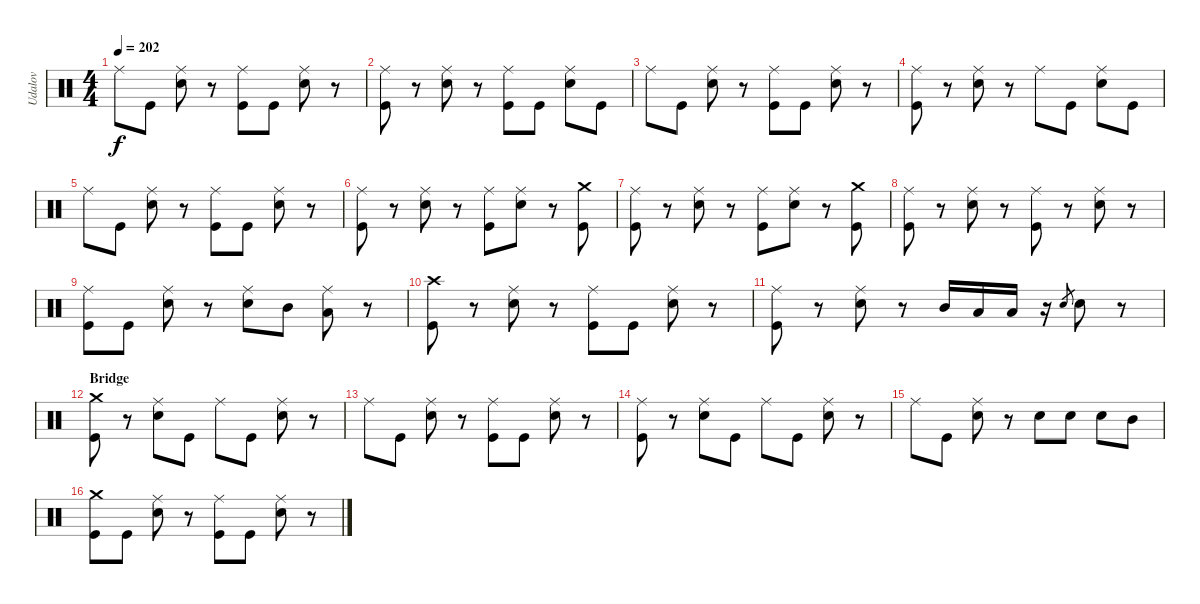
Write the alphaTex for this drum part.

\track ("Udalov" "Udalov") {instrument percussion}
\staff {score}
\articulation defaults
\ts (4 4)
\tempo 202
\clef neutral
\ks c "Ride (middle)".8{dy f} "Kick (hit)".8
("Electric Snare (hit)" "Ride (middle)").8 r.8 ("Kick (hit)" "Ride (middle)").8 "Kick (hit)".8 ("Electric Snare (hit)" "Ride (middle)").8 r.8 |
("Kick (hit)" "Ride (middle)").8 r.8 ("Electric Snare (hit)" "Ride (middle)").8 r.8 ("Kick (hit)" "Ride (middle)").8 "Kick (hit)".8 ("Electric Snare (hit)" "Ride (middle)").8 "Kick (hit)".8 |
"Ride (middle)".8 "Kick (hit)".8 ("Electric Snare (hit)" "Ride (middle)").8 r.8 ("Kick (hit)" "Ride (middle)").8 "Kick (hit)".8 ("Electric Snare (hit)" "Ride (middle)").8 r.8 |
("Kick (hit)" "Ride (middle)").8 r.8 ("Electric Snare (hit)" "Ride (middle)").8 r.8 "Ride (middle)".8 "Kick (hit)".8 ("Electric Snare (hit)" "Ride (middle)").8 "Kick (hit)".8 |
"Ride (middle)".8 "Kick (hit)".8 ("Electric Snare (hit)" "Ride (middle)").8 r.8 ("Kick (hit)" "Ride (middle)").8 "Kick (hit)".8 ("Electric Snare (hit)" "Ride (middle)").8 r.8 |
("Kick (hit)" "Ride (middle)").8 r.8 ("Electric Snare (hit)" "Ride (middle)").8 r.8 ("Kick (hit)" "Ride (middle)").8 ("Electric Snare (hit)" "Ride (middle)").8 r.8 ("Kick (hit)" "Crash medium (hit)").8 |
("Kick (hit)" "Ride (middle)").8 r.8 ("Electric Snare (hit)" "Ride (middle)").8 r.8 ("Kick (hit)" "Ride (middle)").8 ("Electric Snare (hit)" "Ride (middle)").8 r.8 ("Kick (hit)" "Crash medium (hit)").8 |
("Kick (hit)" "Ride (middle)").8 r.8 ("Electric Snare (hit)" "Ride (middle)").8 r.8 ("Kick (hit)" "Ride (middle)").8 r.8 ("Electric Snare (hit)" "Ride (middle)").8 r.8 |
("Kick (hit)" "Ride (middle)").8 "Kick (hit)".8 ("Electric Snare (hit)" "Ride (middle)").8 r.8 ("Electric Snare (hit)" "Ride (middle)").8 "Mid Tom (hit)".8 ("Low Tom (hit)" "Ride (middle)").8 r.8 |
("Kick (hit)" "Crash high (hit)").8 r.8 ("Electric Snare (hit)" "Ride (middle)").8 r.8 ("Kick (hit)" "Ride (middle)").8 "Kick (hit)".8 ("Electric Snare (hit)" "Ride (middle)").8 r.8 |
("Kick (hit)" "Ride (middle)").8 r.8 ("Electric Snare (hit)" "Ride (middle)").8 r.8 "Mid Tom (hit)".16 "Low Tom (hit)".16 "Low Tom (hit)".16 r.16 "Electric Snare (hit)".8{gr} "Electric Snare (hit)".8 r.8 |
\section ("" "Bridge")
("Kick (hit)" "Crash medium (hit)").8 r.8 ("Electric Snare (hit)" "Ride (middle)").8 "Kick (hit)".8 "Ride (middle)".8 "Kick (hit)".8 ("Electric Snare (hit)" "Ride (middle)").8 r.8 |
"Ride (middle)".8 "Kick (hit)".8 ("Electric Snare (hit)" "Ride (middle)").8 r.8 ("Kick (hit)" "Ride (middle)").8 "Kick (hit)".8 ("Electric Snare (hit)" "Ride (middle)").8 r.8 |
("Kick (hit)" "Ride (middle)").8 r.8 ("Electric Snare (hit)" "Ride (middle)").8 "Kick (hit)".8 "Ride (middle)".8 "Kick (hit)".8 ("Electric Snare (hit)" "Ride (middle)").8 r.8 |
"Ride (middle)".8 "Kick (hit)".8 ("Electric Snare (hit)" "Ride (middle)").8 r.8 "Electric Snare (hit)".8 "Electric Snare (hit)".8 "Electric Snare (hit)".8 "Mid Tom (hit)".8 |
("Kick (hit)" "Crash medium (hit)").8 "Kick (hit)".8 ("Electric Snare (hit)" "Ride (middle)").8 r.8 ("Kick (hit)" "Ride (middle)").8 "Kick (hit)".8 ("Electric Snare (hit)" "Ride (middle)").8 r.8
